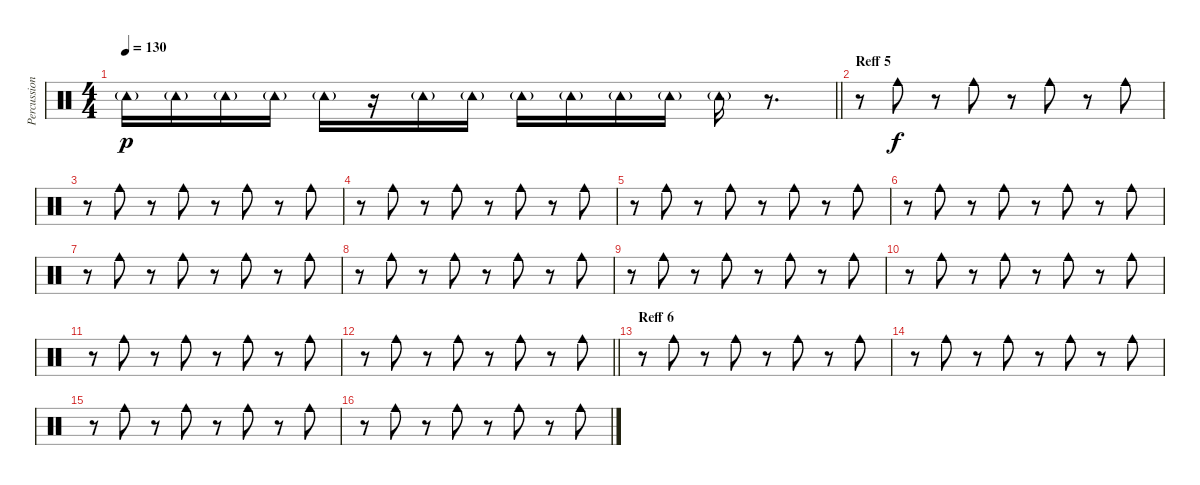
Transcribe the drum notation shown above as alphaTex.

\track ("Percussion 2" "Percussion") {instrument percussion}
\staff {score}
\articulation defaults
\ts (4 4)
\tempo 130
\clef neutral
\barLineRight lightlight
\ks c "Tambourine (hit)"{g}.16{dy p} "Tambourine (hit)"{g}.16 "Tambourine (hit)"{g}.16 "Tambourine (hit)"{g}.16 "Tambourine (hit)"{g}.16
r.16 "Tambourine (hit)"{g}.16 "Tambourine (hit)"{g}.16 "Tambourine (hit)"{g}.16 "Tambourine (hit)"{g}.16 "Tambourine (hit)"{g}.16 "Tambourine (hit)"{g}.16 "Tambourine (hit)"{g}.16 r.8{d} |
\section ("" "Reff 5")
r.8 "Cowbell medium (hit)".8{dy f} r.8 "Cowbell medium (hit)".8 r.8 "Cowbell medium (hit)".8 r.8 "Cowbell medium (hit)".8 |
r.8 "Cowbell medium (hit)".8 r.8 "Cowbell medium (hit)".8 r.8 "Cowbell medium (hit)".8 r.8 "Cowbell medium (hit)".8 |
r.8 "Cowbell medium (hit)".8 r.8 "Cowbell medium (hit)".8 r.8 "Cowbell medium (hit)".8 r.8 "Cowbell medium (hit)".8 |
r.8 "Cowbell medium (hit)".8 r.8 "Cowbell medium (hit)".8 r.8 "Cowbell medium (hit)".8 r.8 "Cowbell medium (hit)".8 |
r.8 "Cowbell medium (hit)".8 r.8 "Cowbell medium (hit)".8 r.8 "Cowbell medium (hit)".8 r.8 "Cowbell medium (hit)".8 |
r.8 "Cowbell medium (hit)".8 r.8 "Cowbell medium (hit)".8 r.8 "Cowbell medium (hit)".8 r.8 "Cowbell medium (hit)".8 |
r.8 "Cowbell medium (hit)".8 r.8 "Cowbell medium (hit)".8 r.8 "Cowbell medium (hit)".8 r.8 "Cowbell medium (hit)".8 |
r.8 "Cowbell medium (hit)".8 r.8 "Cowbell medium (hit)".8 r.8 "Cowbell medium (hit)".8 r.8 "Cowbell medium (hit)".8 |
r.8 "Cowbell medium (hit)".8 r.8 "Cowbell medium (hit)".8 r.8 "Cowbell medium (hit)".8 r.8 "Cowbell medium (hit)".8 |
r.8 "Cowbell medium (hit)".8 r.8 "Cowbell medium (hit)".8 r.8 "Cowbell medium (hit)".8 r.8 "Cowbell medium (hit)".8 |
\barLineRight lightlight
r.8 "Cowbell medium (hit)".8 r.8 "Cowbell medium (hit)".8 r.8 "Cowbell medium (hit)".8 r.8 "Cowbell medium (hit)".8 |
\section ("" "Reff 6")
r.8 "Cowbell medium (hit)".8 r.8 "Cowbell medium (hit)".8 r.8 "Cowbell medium (hit)".8 r.8 "Cowbell medium (hit)".8 |
r.8 "Cowbell medium (hit)".8 r.8 "Cowbell medium (hit)".8 r.8 "Cowbell medium (hit)".8 r.8 "Cowbell medium (hit)".8 |
r.8 "Cowbell medium (hit)".8 r.8 "Cowbell medium (hit)".8 r.8 "Cowbell medium (hit)".8 r.8 "Cowbell medium (hit)".8 |
r.8 "Cowbell medium (hit)".8 r.8 "Cowbell medium (hit)".8 r.8 "Cowbell medium (hit)".8 r.8 "Cowbell medium (hit)".8
